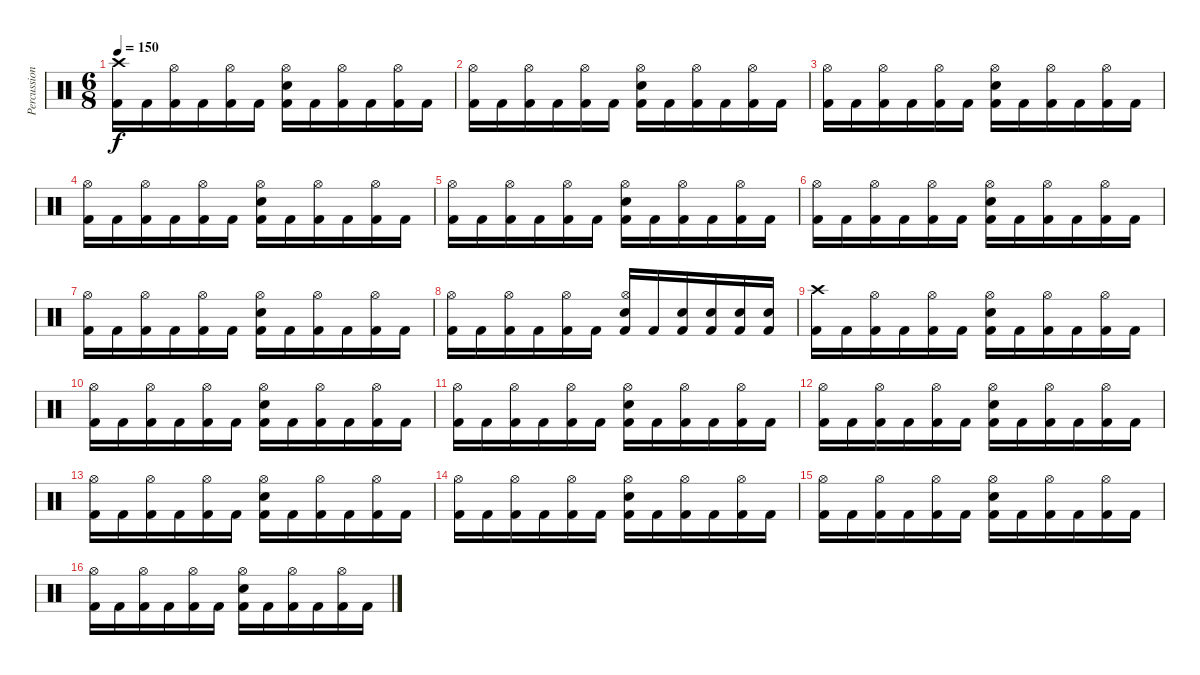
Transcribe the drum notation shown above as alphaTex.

\track ("Percussion" "Percussion") {instrument percussion}
\staff {score}
\articulation defaults
\ts (6 8)
\tempo 150
\clef neutral
\ks c
("Crash high (hit)" "Kick (hit) 2").16{dy f} "Kick (hit) 2".16 ("Hi-Hat (open)" "Kick (hit) 2").16 "Kick (hit) 2".16 ("Hi-Hat (open)" "Kick (hit) 2").16 "Kick (hit) 2".16 ("Hi-Hat (open)" "Electric Snare (hit)" "Kick (hit) 2").16 "Kick (hit) 2".16 ("Hi-Hat (open)" "Kick (hit) 2").16 "Kick (hit) 2".16 ("Hi-Hat (open)" "Kick (hit) 2").16 "Kick (hit) 2".16 |
("Hi-Hat (open)" "Kick (hit) 2").16 "Kick (hit) 2".16 ("Hi-Hat (open)" "Kick (hit) 2").16 "Kick (hit) 2".16 ("Hi-Hat (open)" "Kick (hit) 2").16 "Kick (hit) 2".16 ("Hi-Hat (open)" "Electric Snare (hit)" "Kick (hit) 2").16 "Kick (hit) 2".16 ("Hi-Hat (open)" "Kick (hit) 2").16 "Kick (hit) 2".16 ("Hi-Hat (open)" "Kick (hit) 2").16 "Kick (hit) 2".16 |
("Hi-Hat (open)" "Kick (hit) 2").16 "Kick (hit) 2".16 ("Hi-Hat (open)" "Kick (hit) 2").16 "Kick (hit) 2".16 ("Hi-Hat (open)" "Kick (hit) 2").16 "Kick (hit) 2".16 ("Hi-Hat (open)" "Electric Snare (hit)" "Kick (hit) 2").16 "Kick (hit) 2".16 ("Hi-Hat (open)" "Kick (hit) 2").16 "Kick (hit) 2".16 ("Hi-Hat (open)" "Kick (hit) 2").16 "Kick (hit) 2".16 |
("Hi-Hat (open)" "Kick (hit) 2").16 "Kick (hit) 2".16 ("Hi-Hat (open)" "Kick (hit) 2").16 "Kick (hit) 2".16 ("Hi-Hat (open)" "Kick (hit) 2").16 "Kick (hit) 2".16 ("Hi-Hat (open)" "Electric Snare (hit)" "Kick (hit) 2").16 "Kick (hit) 2".16 ("Hi-Hat (open)" "Kick (hit) 2").16 "Kick (hit) 2".16 ("Hi-Hat (open)" "Kick (hit) 2").16 "Kick (hit) 2".16 |
("Hi-Hat (open)" "Kick (hit) 2").16 "Kick (hit) 2".16 ("Hi-Hat (open)" "Kick (hit) 2").16 "Kick (hit) 2".16 ("Hi-Hat (open)" "Kick (hit) 2").16 "Kick (hit) 2".16 ("Hi-Hat (open)" "Electric Snare (hit)" "Kick (hit) 2").16 "Kick (hit) 2".16 ("Hi-Hat (open)" "Kick (hit) 2").16 "Kick (hit) 2".16 ("Hi-Hat (open)" "Kick (hit) 2").16 "Kick (hit) 2".16 |
("Hi-Hat (open)" "Kick (hit) 2").16 "Kick (hit) 2".16 ("Hi-Hat (open)" "Kick (hit) 2").16 "Kick (hit) 2".16 ("Hi-Hat (open)" "Kick (hit) 2").16 "Kick (hit) 2".16 ("Hi-Hat (open)" "Electric Snare (hit)" "Kick (hit) 2").16 "Kick (hit) 2".16 ("Hi-Hat (open)" "Kick (hit) 2").16 "Kick (hit) 2".16 ("Hi-Hat (open)" "Kick (hit) 2").16 "Kick (hit) 2".16 |
("Hi-Hat (open)" "Kick (hit) 2").16 "Kick (hit) 2".16 ("Hi-Hat (open)" "Kick (hit) 2").16 "Kick (hit) 2".16 ("Hi-Hat (open)" "Kick (hit) 2").16 "Kick (hit) 2".16 ("Hi-Hat (open)" "Electric Snare (hit)" "Kick (hit) 2").16 "Kick (hit) 2".16 ("Hi-Hat (open)" "Kick (hit) 2").16 "Kick (hit) 2".16 ("Hi-Hat (open)" "Kick (hit) 2").16 "Kick (hit) 2".16 |
("Hi-Hat (open)" "Kick (hit) 2").16 "Kick (hit) 2".16 ("Hi-Hat (open)" "Kick (hit) 2").16 "Kick (hit) 2".16 ("Hi-Hat (open)" "Kick (hit) 2").16 "Kick (hit) 2".16 ("Hi-Hat (open)" "Electric Snare (hit)" "Kick (hit) 2").16 "Kick (hit) 2".16 ("Electric Snare (hit)" "Kick (hit) 2").16 ("Electric Snare (hit)" "Kick (hit) 2").16 ("Electric Snare (hit)" "Kick (hit) 2").16 ("Electric Snare (hit)" "Kick (hit) 2").16 |
("Crash high (hit)" "Kick (hit) 2").16 "Kick (hit) 2".16 ("Hi-Hat (open)" "Kick (hit) 2").16 "Kick (hit) 2".16 ("Hi-Hat (open)" "Kick (hit) 2").16 "Kick (hit) 2".16 ("Hi-Hat (open)" "Electric Snare (hit)" "Kick (hit) 2").16 "Kick (hit) 2".16 ("Hi-Hat (open)" "Kick (hit) 2").16 "Kick (hit) 2".16 ("Hi-Hat (open)" "Kick (hit) 2").16 "Kick (hit) 2".16 |
("Hi-Hat (open)" "Kick (hit) 2").16 "Kick (hit) 2".16 ("Hi-Hat (open)" "Kick (hit) 2").16 "Kick (hit) 2".16 ("Hi-Hat (open)" "Kick (hit) 2").16 "Kick (hit) 2".16 ("Hi-Hat (open)" "Electric Snare (hit)" "Kick (hit) 2").16 "Kick (hit) 2".16 ("Hi-Hat (open)" "Kick (hit) 2").16 "Kick (hit) 2".16 ("Hi-Hat (open)" "Kick (hit) 2").16 "Kick (hit) 2".16 |
("Hi-Hat (open)" "Kick (hit) 2").16 "Kick (hit) 2".16 ("Hi-Hat (open)" "Kick (hit) 2").16 "Kick (hit) 2".16 ("Hi-Hat (open)" "Kick (hit) 2").16 "Kick (hit) 2".16 ("Hi-Hat (open)" "Electric Snare (hit)" "Kick (hit) 2").16 "Kick (hit) 2".16 ("Hi-Hat (open)" "Kick (hit) 2").16 "Kick (hit) 2".16 ("Hi-Hat (open)" "Kick (hit) 2").16 "Kick (hit) 2".16 |
("Hi-Hat (open)" "Kick (hit) 2").16 "Kick (hit) 2".16 ("Hi-Hat (open)" "Kick (hit) 2").16 "Kick (hit) 2".16 ("Hi-Hat (open)" "Kick (hit) 2").16 "Kick (hit) 2".16 ("Hi-Hat (open)" "Electric Snare (hit)" "Kick (hit) 2").16 "Kick (hit) 2".16 ("Hi-Hat (open)" "Kick (hit) 2").16 "Kick (hit) 2".16 ("Hi-Hat (open)" "Kick (hit) 2").16 "Kick (hit) 2".16 |
("Hi-Hat (open)" "Kick (hit) 2").16 "Kick (hit) 2".16 ("Hi-Hat (open)" "Kick (hit) 2").16 "Kick (hit) 2".16 ("Hi-Hat (open)" "Kick (hit) 2").16 "Kick (hit) 2".16 ("Hi-Hat (open)" "Electric Snare (hit)" "Kick (hit) 2").16 "Kick (hit) 2".16 ("Hi-Hat (open)" "Kick (hit) 2").16 "Kick (hit) 2".16 ("Hi-Hat (open)" "Kick (hit) 2").16 "Kick (hit) 2".16 |
("Hi-Hat (open)" "Kick (hit) 2").16 "Kick (hit) 2".16 ("Hi-Hat (open)" "Kick (hit) 2").16 "Kick (hit) 2".16 ("Hi-Hat (open)" "Kick (hit) 2").16 "Kick (hit) 2".16 ("Hi-Hat (open)" "Electric Snare (hit)" "Kick (hit) 2").16 "Kick (hit) 2".16 ("Hi-Hat (open)" "Kick (hit) 2").16 "Kick (hit) 2".16 ("Hi-Hat (open)" "Kick (hit) 2").16 "Kick (hit) 2".16 |
("Hi-Hat (open)" "Kick (hit) 2").16 "Kick (hit) 2".16 ("Hi-Hat (open)" "Kick (hit) 2").16 "Kick (hit) 2".16 ("Hi-Hat (open)" "Kick (hit) 2").16 "Kick (hit) 2".16 ("Hi-Hat (open)" "Electric Snare (hit)" "Kick (hit) 2").16 "Kick (hit) 2".16 ("Hi-Hat (open)" "Kick (hit) 2").16 "Kick (hit) 2".16 ("Hi-Hat (open)" "Kick (hit) 2").16 "Kick (hit) 2".16 |
("Hi-Hat (open)" "Kick (hit) 2").16 "Kick (hit) 2".16 ("Hi-Hat (open)" "Kick (hit) 2").16 "Kick (hit) 2".16 ("Hi-Hat (open)" "Kick (hit) 2").16 "Kick (hit) 2".16 ("Hi-Hat (open)" "Electric Snare (hit)" "Kick (hit) 2").16 "Kick (hit) 2".16 ("Hi-Hat (open)" "Kick (hit) 2").16 "Kick (hit) 2".16 ("Hi-Hat (open)" "Kick (hit) 2").16 "Kick (hit) 2".16
